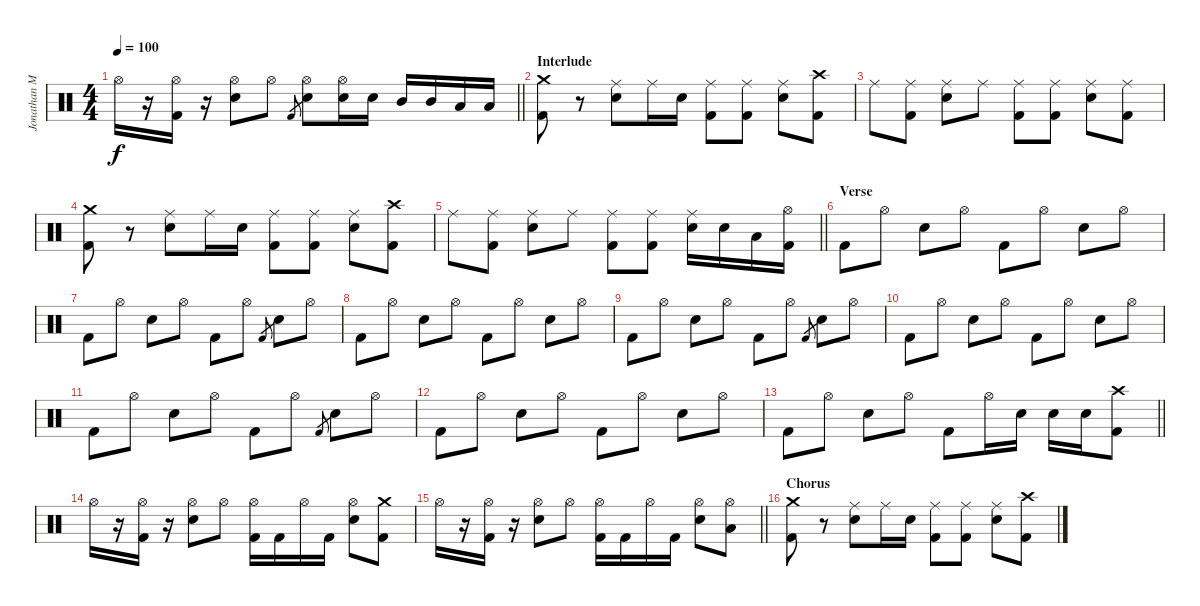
\track ("Jonathan Mover (Studio Drummer)" "Jonathan M") {instrument percussion}
\staff {score}
\articulation defaults
\ts (4 4)
\tempo 100
\clef neutral
\barLineRight lightlight
\ks c "Hi-Hat (open)".16{dy f}
r.16 ("Hi-Hat (open)" "Kick (hit) 2").16 r.16 ("Hi-Hat (open)" "Snare (hit) 2").8 "Hi-Hat (open)".8 "Kick (hit) 2".8{gr} ("Hi-Hat (open)" "Snare (hit) 2").8 ("Hi-Hat (open)" "Snare (hit) 2").16 "Snare (hit) 2".16 "Mid Tom (hit)".16 "Mid Tom (hit)".16 "Low Tom (hit)".16 "Low Tom (hit)".16 |
\section ("" "Interlude")
("Crash medium (hit)" "Kick (hit) 2").8 r.8 ("Ride (middle)" "Snare (hit) 2").8 "Ride (middle)".16 "Snare (hit) 2".16 ("Ride (middle)" "Kick (hit) 2").8 ("Ride (middle)" "Kick (hit) 2").8 ("Ride (middle)" "Snare (hit) 2").8 ("Crash high (hit)" "Kick (hit) 2").8 |
"Ride (middle)".8 ("Ride (middle)" "Kick (hit) 2").8 ("Ride (middle)" "Snare (hit) 2").8 "Ride (middle)".8 ("Ride (middle)" "Kick (hit) 2").8 ("Ride (middle)" "Kick (hit) 2").8 ("Ride (middle)" "Snare (hit) 2").8 ("Ride (middle)" "Kick (hit) 2").8 |
("Crash medium (hit)" "Kick (hit) 2").8 r.8 ("Ride (middle)" "Snare (hit) 2").8 "Ride (middle)".16 "Snare (hit) 2".16 ("Ride (middle)" "Kick (hit) 2").8 ("Ride (middle)" "Kick (hit) 2").8 ("Ride (middle)" "Snare (hit) 2").8 ("Crash high (hit)" "Kick (hit) 2").8 |
\barLineRight lightlight "Ride (middle)".8
("Ride (middle)" "Kick (hit) 2").8 ("Ride (middle)" "Snare (hit) 2").8 "Ride (middle)".8 ("Ride (middle)" "Kick (hit) 2").8 ("Ride (middle)" "Kick (hit) 2").8 ("Ride (middle)" "Snare (hit) 2").16 "Snare (hit) 2".16 "Low Tom (hit)".16 ("Hi-Hat (open)" "Kick (hit) 2").16 |
\section ("" "Verse")
"Kick (hit) 2".8 "Hi-Hat (open)".8 "Snare (hit) 2".8 "Hi-Hat (open)".8 "Kick (hit) 2".8 "Hi-Hat (open)".8 "Snare (hit) 2".8 "Hi-Hat (open)".8 |
"Kick (hit) 2".8 "Hi-Hat (open)".8 "Snare (hit) 2".8 "Hi-Hat (open)".8 "Kick (hit) 2".8 "Hi-Hat (open)".8 "Kick (hit) 2".8{gr} "Snare (hit) 2".8 "Hi-Hat (open)".8 |
"Kick (hit) 2".8 "Hi-Hat (open)".8 "Snare (hit) 2".8 "Hi-Hat (open)".8 "Kick (hit) 2".8 "Hi-Hat (open)".8 "Snare (hit) 2".8 "Hi-Hat (open)".8 |
"Kick (hit) 2".8 "Hi-Hat (open)".8 "Snare (hit) 2".8 "Hi-Hat (open)".8 "Kick (hit) 2".8 "Hi-Hat (open)".8 "Kick (hit) 2".8{gr} "Snare (hit) 2".8 "Hi-Hat (open)".8 |
"Kick (hit) 2".8 "Hi-Hat (open)".8 "Snare (hit) 2".8 "Hi-Hat (open)".8 "Kick (hit) 2".8 "Hi-Hat (open)".8 "Snare (hit) 2".8 "Hi-Hat (open)".8 |
"Kick (hit) 2".8 "Hi-Hat (open)".8 "Snare (hit) 2".8 "Hi-Hat (open)".8 "Kick (hit) 2".8 "Hi-Hat (open)".8 "Kick (hit) 2".8{gr} "Snare (hit) 2".8 "Hi-Hat (open)".8 |
"Kick (hit) 2".8 "Hi-Hat (open)".8 "Snare (hit) 2".8 "Hi-Hat (open)".8 "Kick (hit) 2".8 "Hi-Hat (open)".8 "Snare (hit) 2".8 "Hi-Hat (open)".8 |
\barLineRight lightlight "Kick (hit) 2".8 "Hi-Hat (open)".8 "Snare (hit) 2".8 "Hi-Hat (open)".8 "Kick (hit) 2".8 "Hi-Hat (open)".16 "Snare (hit) 2".16 "Snare (hit) 2".16 "Snare (hit) 2".16
("Crash high (hit)" "Kick (hit) 2").8 |
"Hi-Hat (open)".16 r.16 ("Hi-Hat (open)" "Kick (hit) 2").16 r.16 ("Hi-Hat (open)" "Snare (hit) 2").8 "Hi-Hat (open)".8 ("Hi-Hat (open)" "Kick (hit) 2").16 "Kick (hit) 2".16 "Hi-Hat (open)".16 "Kick (hit) 2".16 ("Hi-Hat (open)" "Snare (hit) 2").8 ("Crash medium (hit)" "Kick (hit) 2").8 |
\barLineRight lightlight "Hi-Hat (open)".16
r.16 ("Hi-Hat (open)" "Kick (hit) 2").16 r.16 ("Hi-Hat (open)" "Snare (hit) 2").8 "Hi-Hat (open)".8 ("Hi-Hat (open)" "Kick (hit) 2").16 "Kick (hit) 2".16 "Hi-Hat (open)".16 "Kick (hit) 2".16 ("Hi-Hat (open)" "Snare (hit) 2").8 ("Hi-Hat (open)" "Low Tom (hit)").8 |
\section ("" "Chorus")
("Crash medium (hit)" "Kick (hit) 2").8 r.8 ("Ride (middle)" "Snare (hit) 2").8 "Ride (middle)".16 "Snare (hit) 2".16 ("Ride (middle)" "Kick (hit) 2").8 ("Ride (middle)" "Kick (hit) 2").8 ("Ride (middle)" "Snare (hit) 2").8 ("Crash high (hit)" "Kick (hit) 2").8
